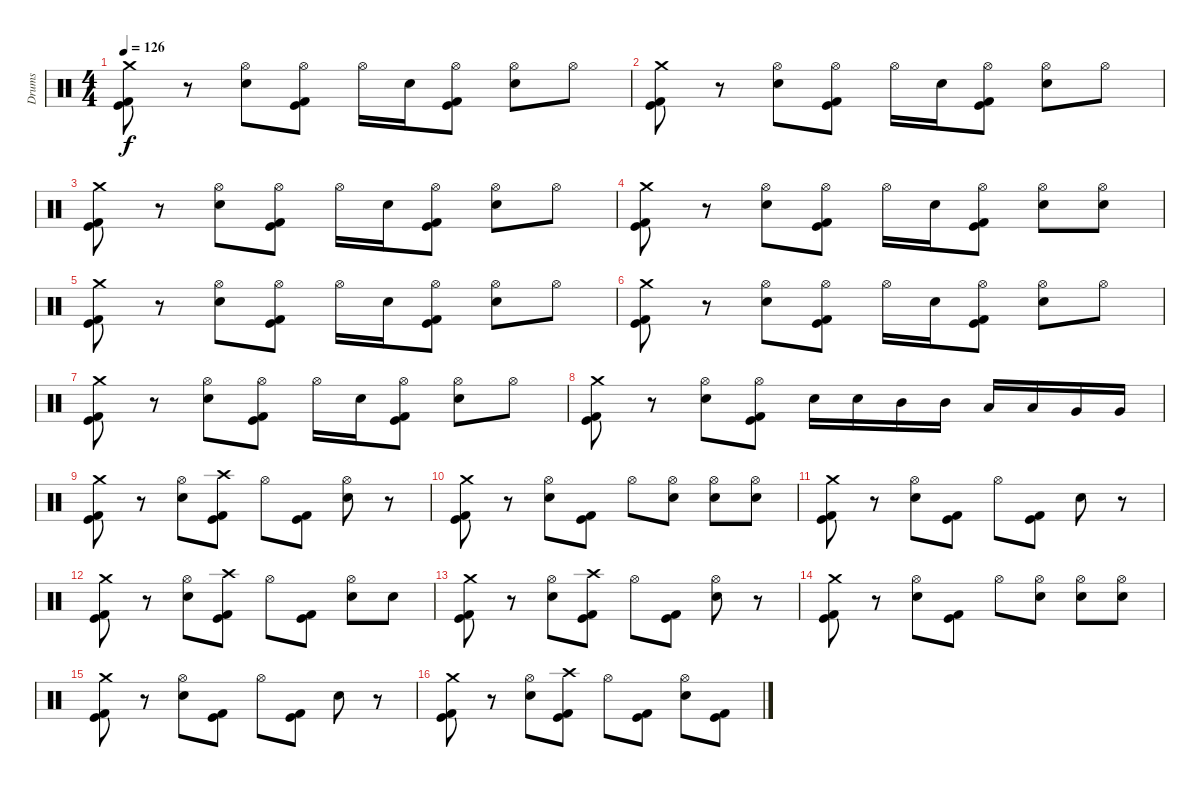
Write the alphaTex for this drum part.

\track ("Drums" "Drums") {instrument percussion}
\staff {score}
\articulation defaults
\ts (4 4)
\tempo 126
\clef neutral
\ks c
("Crash medium (hit)" "Kick (hit) 2" "Kick (hit)").8{dy f} r.8 ("Hi-Hat (open)" "Snare (hit) 2").8 ("Hi-Hat (open)" "Kick (hit) 2" "Kick (hit)").8 "Hi-Hat (open)".16 "Snare (hit) 2".16 ("Hi-Hat (open)" "Kick (hit) 2" "Kick (hit)").8 ("Hi-Hat (open)" "Snare (hit) 2").8 "Hi-Hat (open)".8 |
("Crash medium (hit)" "Kick (hit) 2" "Kick (hit)").8 r.8 ("Hi-Hat (open)" "Snare (hit) 2").8 ("Hi-Hat (open)" "Kick (hit) 2" "Kick (hit)").8 "Hi-Hat (open)".16 "Snare (hit) 2".16 ("Hi-Hat (open)" "Kick (hit) 2" "Kick (hit)").8 ("Hi-Hat (open)" "Snare (hit) 2").8 "Hi-Hat (open)".8 |
("Crash medium (hit)" "Kick (hit) 2" "Kick (hit)").8 r.8 ("Hi-Hat (open)" "Snare (hit) 2").8 ("Hi-Hat (open)" "Kick (hit) 2" "Kick (hit)").8 "Hi-Hat (open)".16 "Snare (hit) 2".16 ("Hi-Hat (open)" "Kick (hit) 2" "Kick (hit)").8 ("Hi-Hat (open)" "Snare (hit) 2").8 "Hi-Hat (open)".8 |
("Crash medium (hit)" "Kick (hit) 2" "Kick (hit)").8 r.8 ("Hi-Hat (open)" "Snare (hit) 2").8 ("Hi-Hat (open)" "Kick (hit) 2" "Kick (hit)").8 "Hi-Hat (open)".16 "Snare (hit) 2".16 ("Hi-Hat (open)" "Kick (hit) 2" "Kick (hit)").8 ("Hi-Hat (open)" "Snare (hit) 2").8 ("Hi-Hat (open)" "Snare (hit) 2").8 |
("Crash medium (hit)" "Kick (hit) 2" "Kick (hit)").8 r.8 ("Hi-Hat (open)" "Snare (hit) 2").8 ("Hi-Hat (open)" "Kick (hit) 2" "Kick (hit)").8 "Hi-Hat (open)".16 "Snare (hit) 2".16 ("Hi-Hat (open)" "Kick (hit) 2" "Kick (hit)").8 ("Hi-Hat (open)" "Snare (hit) 2").8 "Hi-Hat (open)".8 |
("Crash medium (hit)" "Kick (hit) 2" "Kick (hit)").8 r.8 ("Hi-Hat (open)" "Snare (hit) 2").8 ("Hi-Hat (open)" "Kick (hit) 2" "Kick (hit)").8 "Hi-Hat (open)".16 "Snare (hit) 2".16 ("Hi-Hat (open)" "Kick (hit) 2" "Kick (hit)").8 ("Hi-Hat (open)" "Snare (hit) 2").8 "Hi-Hat (open)".8 |
("Crash medium (hit)" "Kick (hit) 2" "Kick (hit)").8 r.8 ("Hi-Hat (open)" "Snare (hit) 2").8 ("Hi-Hat (open)" "Kick (hit) 2" "Kick (hit)").8 "Hi-Hat (open)".16 "Snare (hit) 2".16 ("Hi-Hat (open)" "Kick (hit) 2" "Kick (hit)").8 ("Hi-Hat (open)" "Snare (hit) 2").8 "Hi-Hat (open)".8 |
("Crash medium (hit)" "Kick (hit) 2" "Kick (hit)").8 r.8 ("Hi-Hat (open)" "Snare (hit) 2").8 ("Hi-Hat (open)" "Kick (hit) 2" "Kick (hit)").8 "Snare (hit) 2".16 "Snare (hit) 2".16 "Mid Tom (hit)".16 "Mid Tom (hit)".16 "Low Tom (hit)".16 "Low Tom (hit)".16 "Very Low Tom (hit)".16 "Very Low Tom (hit)".16 |
("Crash medium (hit)" "Kick (hit) 2" "Kick (hit)").8 r.8 ("Hi-Hat (open)" "Snare (hit) 2").8 ("Crash high (hit)" "Kick (hit) 2" "Kick (hit)").8 "Hi-Hat (open)".8 ("Kick (hit) 2" "Kick (hit)").8 ("Hi-Hat (open)" "Snare (hit) 2").8 r.8 |
("Crash medium (hit)" "Kick (hit) 2" "Kick (hit)").8 r.8 ("Hi-Hat (open)" "Snare (hit) 2").8 ("Kick (hit) 2" "Kick (hit)").8 "Hi-Hat (open)".8 ("Hi-Hat (open)" "Snare (hit) 2").8 ("Hi-Hat (open)" "Snare (hit) 2").8 ("Hi-Hat (open)" "Snare (hit) 2").8 |
("Crash medium (hit)" "Kick (hit) 2" "Kick (hit)").8 r.8 ("Hi-Hat (open)" "Snare (hit) 2").8 ("Kick (hit) 2" "Kick (hit)").8 "Hi-Hat (open)".8 ("Kick (hit) 2" "Kick (hit)").8 "Snare (hit) 2".8 r.8 |
("Crash medium (hit)" "Kick (hit) 2" "Kick (hit)").8 r.8 ("Hi-Hat (open)" "Snare (hit) 2").8 ("Crash high (hit)" "Kick (hit) 2" "Kick (hit)").8 "Hi-Hat (open)".8 ("Kick (hit) 2" "Kick (hit)").8 ("Hi-Hat (open)" "Snare (hit) 2").8 "Snare (hit) 2".8 |
("Crash medium (hit)" "Kick (hit) 2" "Kick (hit)").8 r.8 ("Hi-Hat (open)" "Snare (hit) 2").8 ("Crash high (hit)" "Kick (hit) 2" "Kick (hit)").8 "Hi-Hat (open)".8 ("Kick (hit) 2" "Kick (hit)").8 ("Hi-Hat (open)" "Snare (hit) 2").8 r.8 |
("Crash medium (hit)" "Kick (hit) 2" "Kick (hit)").8 r.8 ("Hi-Hat (open)" "Snare (hit) 2").8 ("Kick (hit) 2" "Kick (hit)").8 "Hi-Hat (open)".8 ("Hi-Hat (open)" "Snare (hit) 2").8 ("Hi-Hat (open)" "Snare (hit) 2").8 ("Hi-Hat (open)" "Snare (hit) 2").8 |
("Crash medium (hit)" "Kick (hit) 2" "Kick (hit)").8 r.8 ("Hi-Hat (open)" "Snare (hit) 2").8 ("Kick (hit) 2" "Kick (hit)").8 "Hi-Hat (open)".8 ("Kick (hit) 2" "Kick (hit)").8 "Snare (hit) 2".8 r.8 |
("Crash medium (hit)" "Kick (hit) 2" "Kick (hit)").8 r.8 ("Hi-Hat (open)" "Snare (hit) 2").8 ("Crash high (hit)" "Kick (hit) 2" "Kick (hit)").8 "Hi-Hat (open)".8 ("Kick (hit) 2" "Kick (hit)").8 ("Hi-Hat (open)" "Snare (hit) 2").8 ("Kick (hit) 2" "Kick (hit)").8
